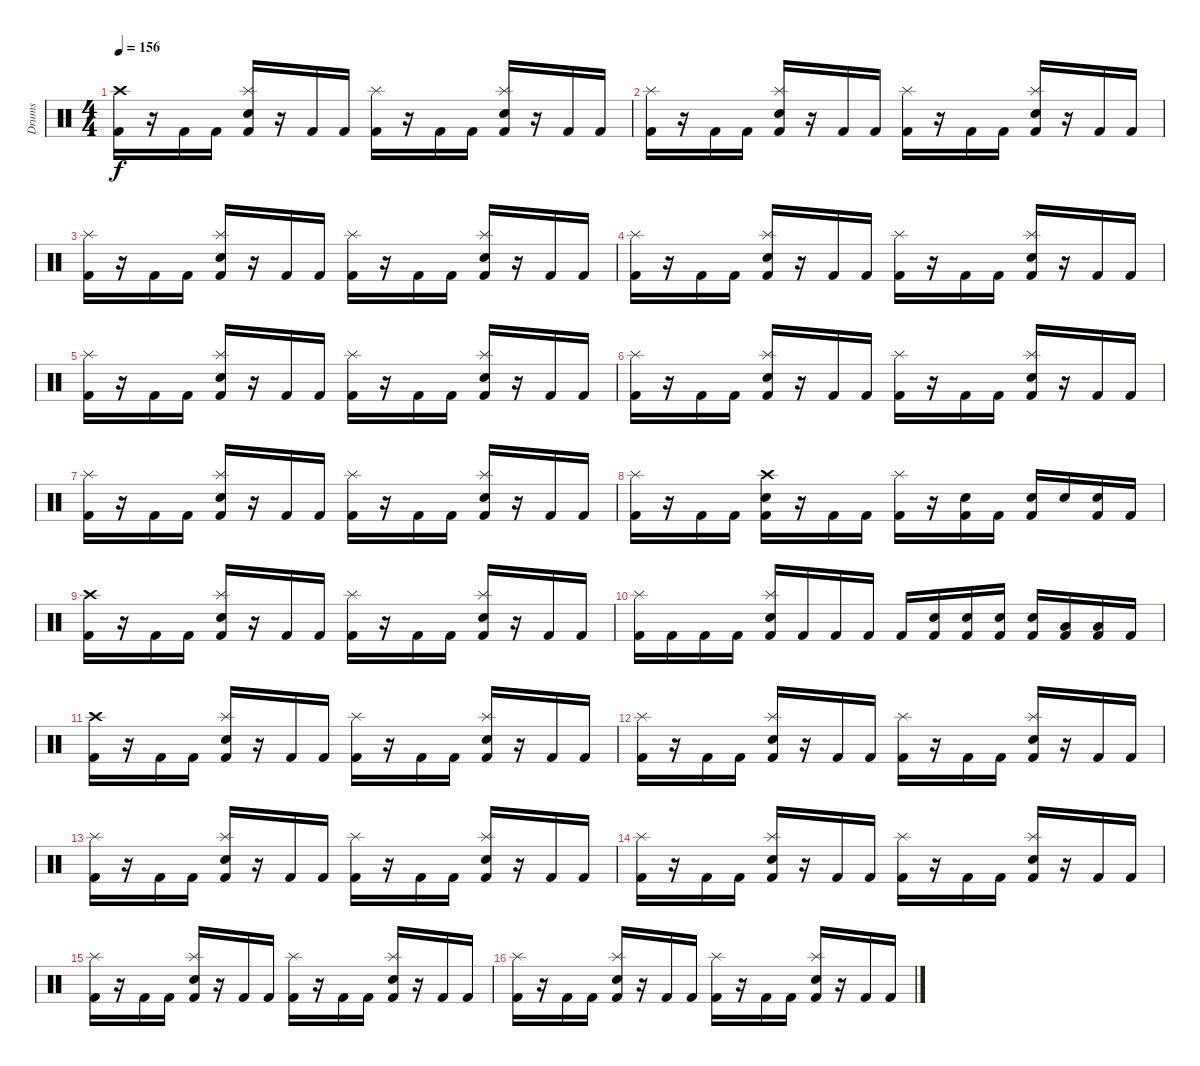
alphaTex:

\track ("Drums" "Drums") {instrument percussion}
\staff {score}
\articulation defaults
\ts (4 4)
\section ("" "")
\tempo 156
\clef neutral
\ks c
("Crash high (hit)" "Kick (hit) 2").16{dy f} r.16 "Kick (hit) 2".16 "Kick (hit) 2".16 ("Splash (hit)" "Snare (hit) 2" "Kick (hit) 2").16 r.16 "Kick (hit) 2".16 "Kick (hit) 2".16 ("Splash (hit)" "Kick (hit) 2").16 r.16 "Kick (hit) 2".16 "Kick (hit) 2".16 ("Splash (hit)" "Snare (hit) 2" "Kick (hit) 2").16 r.16 "Kick (hit) 2".16 "Kick (hit) 2".16 |
("Splash (hit)" "Kick (hit) 2").16 r.16 "Kick (hit) 2".16 "Kick (hit) 2".16 ("Splash (hit)" "Snare (hit) 2" "Kick (hit) 2").16 r.16 "Kick (hit) 2".16 "Kick (hit) 2".16 ("Splash (hit)" "Kick (hit) 2").16 r.16 "Kick (hit) 2".16 "Kick (hit) 2".16 ("Splash (hit)" "Snare (hit) 2" "Kick (hit) 2").16 r.16 "Kick (hit) 2".16 "Kick (hit) 2".16 |
("Splash (hit)" "Kick (hit) 2").16 r.16 "Kick (hit) 2".16 "Kick (hit) 2".16 ("Splash (hit)" "Snare (hit) 2" "Kick (hit) 2").16 r.16 "Kick (hit) 2".16 "Kick (hit) 2".16 ("Splash (hit)" "Kick (hit) 2").16 r.16 "Kick (hit) 2".16 "Kick (hit) 2".16 ("Splash (hit)" "Snare (hit) 2" "Kick (hit) 2").16 r.16 "Kick (hit) 2".16 "Kick (hit) 2".16 |
("Splash (hit)" "Kick (hit) 2").16 r.16 "Kick (hit) 2".16 "Kick (hit) 2".16 ("Splash (hit)" "Snare (hit) 2" "Kick (hit) 2").16 r.16 "Kick (hit) 2".16 "Kick (hit) 2".16 ("Splash (hit)" "Kick (hit) 2").16 r.16 "Kick (hit) 2".16 "Kick (hit) 2".16 ("Splash (hit)" "Snare (hit) 2" "Kick (hit) 2").16 r.16 "Kick (hit) 2".16 "Kick (hit) 2".16 |
("Splash (hit)" "Kick (hit) 2").16 r.16 "Kick (hit) 2".16 "Kick (hit) 2".16 ("Splash (hit)" "Snare (hit) 2" "Kick (hit) 2").16 r.16 "Kick (hit) 2".16 "Kick (hit) 2".16 ("Splash (hit)" "Kick (hit) 2").16 r.16 "Kick (hit) 2".16 "Kick (hit) 2".16 ("Splash (hit)" "Snare (hit) 2" "Kick (hit) 2").16 r.16 "Kick (hit) 2".16 "Kick (hit) 2".16 |
("Splash (hit)" "Kick (hit) 2").16 r.16 "Kick (hit) 2".16 "Kick (hit) 2".16 ("Splash (hit)" "Snare (hit) 2" "Kick (hit) 2").16 r.16 "Kick (hit) 2".16 "Kick (hit) 2".16 ("Splash (hit)" "Kick (hit) 2").16 r.16 "Kick (hit) 2".16 "Kick (hit) 2".16 ("Splash (hit)" "Snare (hit) 2" "Kick (hit) 2").16 r.16 "Kick (hit) 2".16 "Kick (hit) 2".16 |
("Splash (hit)" "Kick (hit) 2").16 r.16 "Kick (hit) 2".16 "Kick (hit) 2".16 ("Splash (hit)" "Snare (hit) 2" "Kick (hit) 2").16 r.16 "Kick (hit) 2".16 "Kick (hit) 2".16 ("Splash (hit)" "Kick (hit) 2").16 r.16 "Kick (hit) 2".16 "Kick (hit) 2".16 ("Splash (hit)" "Snare (hit) 2" "Kick (hit) 2").16 r.16 "Kick (hit) 2".16 "Kick (hit) 2".16 |
("Splash (hit)" "Kick (hit) 2").16 r.16 "Kick (hit) 2".16 "Kick (hit) 2".16 ("Crash high (hit)" "Snare (hit) 2" "Kick (hit) 2").16 r.16 "Kick (hit) 2".16 "Kick (hit) 2".16 ("Splash (hit)" "Kick (hit) 2").16 r.16 ("Snare (hit) 2" "Kick (hit) 2").16 "Kick (hit) 2".16 ("Snare (hit) 2" "Kick (hit) 2").16 "Snare (hit) 2".16 ("Snare (hit) 2" "Kick (hit) 2").16 "Kick (hit) 2".16 |
("Crash high (hit)" "Kick (hit) 2").16 r.16 "Kick (hit) 2".16 "Kick (hit) 2".16 ("Splash (hit)" "Snare (hit) 2" "Kick (hit) 2").16 r.16 "Kick (hit) 2".16 "Kick (hit) 2".16 ("Splash (hit)" "Kick (hit) 2").16 r.16 "Kick (hit) 2".16 "Kick (hit) 2".16 ("Splash (hit)" "Snare (hit) 2" "Kick (hit) 2").16 r.16 "Kick (hit) 2".16 "Kick (hit) 2".16 |
("Splash (hit)" "Kick (hit) 2").16 "Kick (hit) 2".16 "Kick (hit) 2".16 "Kick (hit) 2".16 ("Splash (hit)" "Snare (hit) 2" "Kick (hit) 2").16 "Kick (hit) 2".16 "Kick (hit) 2".16 "Kick (hit) 2".16 "Kick (hit) 2".16 ("Snare (hit) 2" "Kick (hit) 2").16 ("Snare (hit) 2" "Kick (hit) 2").16 ("Snare (hit) 2" "Kick (hit) 2").16 ("Snare (hit) 2" "Kick (hit) 2").16 ("Low Tom (hit)" "Kick (hit) 2").16 ("Low Tom (hit)" "Kick (hit) 2").16 "Kick (hit) 2".16 |
\section ("" "")
("Crash high (hit)" "Kick (hit) 2").16 r.16 "Kick (hit) 2".16 "Kick (hit) 2".16 ("Splash (hit)" "Snare (hit) 2" "Kick (hit) 2").16 r.16 "Kick (hit) 2".16 "Kick (hit) 2".16 ("Splash (hit)" "Kick (hit) 2").16 r.16 "Kick (hit) 2".16 "Kick (hit) 2".16 ("Splash (hit)" "Snare (hit) 2" "Kick (hit) 2").16 r.16 "Kick (hit) 2".16 "Kick (hit) 2".16 |
("Splash (hit)" "Kick (hit) 2").16 r.16 "Kick (hit) 2".16 "Kick (hit) 2".16 ("Splash (hit)" "Snare (hit) 2" "Kick (hit) 2").16 r.16 "Kick (hit) 2".16 "Kick (hit) 2".16 ("Splash (hit)" "Kick (hit) 2").16 r.16 "Kick (hit) 2".16 "Kick (hit) 2".16 ("Splash (hit)" "Snare (hit) 2" "Kick (hit) 2").16 r.16 "Kick (hit) 2".16 "Kick (hit) 2".16 |
("Splash (hit)" "Kick (hit) 2").16 r.16 "Kick (hit) 2".16 "Kick (hit) 2".16 ("Splash (hit)" "Snare (hit) 2" "Kick (hit) 2").16 r.16 "Kick (hit) 2".16 "Kick (hit) 2".16 ("Splash (hit)" "Kick (hit) 2").16 r.16 "Kick (hit) 2".16 "Kick (hit) 2".16 ("Splash (hit)" "Snare (hit) 2" "Kick (hit) 2").16 r.16 "Kick (hit) 2".16 "Kick (hit) 2".16 |
("Splash (hit)" "Kick (hit) 2").16 r.16 "Kick (hit) 2".16 "Kick (hit) 2".16 ("Splash (hit)" "Snare (hit) 2" "Kick (hit) 2").16 r.16 "Kick (hit) 2".16 "Kick (hit) 2".16 ("Splash (hit)" "Kick (hit) 2").16 r.16 "Kick (hit) 2".16 "Kick (hit) 2".16 ("Splash (hit)" "Snare (hit) 2" "Kick (hit) 2").16 r.16 "Kick (hit) 2".16 "Kick (hit) 2".16 |
("Splash (hit)" "Kick (hit) 2").16 r.16 "Kick (hit) 2".16 "Kick (hit) 2".16 ("Splash (hit)" "Snare (hit) 2" "Kick (hit) 2").16 r.16 "Kick (hit) 2".16 "Kick (hit) 2".16 ("Splash (hit)" "Kick (hit) 2").16 r.16 "Kick (hit) 2".16 "Kick (hit) 2".16 ("Splash (hit)" "Snare (hit) 2" "Kick (hit) 2").16 r.16 "Kick (hit) 2".16 "Kick (hit) 2".16 |
("Splash (hit)" "Kick (hit) 2").16 r.16 "Kick (hit) 2".16 "Kick (hit) 2".16 ("Splash (hit)" "Snare (hit) 2" "Kick (hit) 2").16 r.16 "Kick (hit) 2".16 "Kick (hit) 2".16 ("Splash (hit)" "Kick (hit) 2").16 r.16 "Kick (hit) 2".16 "Kick (hit) 2".16 ("Splash (hit)" "Snare (hit) 2" "Kick (hit) 2").16 r.16 "Kick (hit) 2".16 "Kick (hit) 2".16
